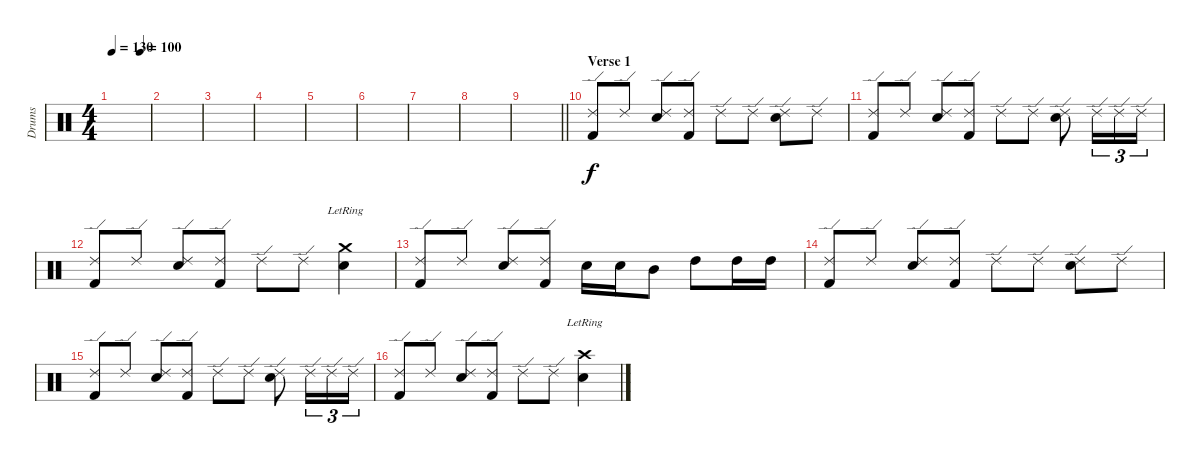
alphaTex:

\track ("Drums" "Drums") {instrument percussion}
\staff {score}
\articulation defaults
\ts (4 4)
\tempo 130
\tempo (100 0.75)
\clef neutral
\ks c
|
|
|
|
|
|
|
|
\barLineRight lightlight
|
\section ("" "Verse 1")
("Ride (edge) 2" "Kick (hit) 2").8 "Ride (edge) 2".8 ("Ride (edge) 2" "Snare (hit) 2").8 ("Ride (edge) 2" "Kick (hit) 2").8 "Ride (edge) 2".8 "Ride (edge) 2".8 ("Ride (edge) 2" "Snare (hit) 2").8 "Ride (edge) 2".8 |
("Ride (edge) 2" "Kick (hit) 2").8 "Ride (edge) 2".8 ("Ride (edge) 2" "Snare (hit) 2").8 ("Ride (edge) 2" "Kick (hit) 2").8 "Ride (edge) 2".8 "Ride (edge) 2".8 ("Ride (edge) 2" "Snare (hit) 2").8 "Ride (edge) 2".16{tu (3 2)} "Ride (edge) 2".16{tu (3 2)} "Ride (edge) 2".16{tu (3 2)} |
("Ride (edge) 2" "Kick (hit) 2").8 "Ride (edge) 2".8 ("Ride (edge) 2" "Snare (hit) 2").8 ("Ride (edge) 2" "Kick (hit) 2").8 "Ride (edge) 2".8 "Ride (edge) 2".8 ("Crash medium (hit)"{lr} "Snare (hit) 2").4 |
("Ride (edge) 2" "Kick (hit) 2").8 "Ride (edge) 2".8 ("Ride (edge) 2" "Snare (hit) 2").8 ("Ride (edge) 2" "Kick (hit) 2").8 "Snare (hit) 2".16 "Snare (hit) 2".16 "Mid Tom (hit)".8 "High Tom (hit)".8 "High Tom (hit)".16 "High Tom (hit)".16 |
("Ride (edge) 2" "Kick (hit) 2").8 "Ride (edge) 2".8 ("Ride (edge) 2" "Snare (hit) 2").8 ("Ride (edge) 2" "Kick (hit) 2").8 "Ride (edge) 2".8 "Ride (edge) 2".8 ("Ride (edge) 2" "Snare (hit) 2").8 "Ride (edge) 2".8 |
("Ride (edge) 2" "Kick (hit) 2").8 "Ride (edge) 2".8 ("Ride (edge) 2" "Snare (hit) 2").8 ("Ride (edge) 2" "Kick (hit) 2").8 "Ride (edge) 2".8 "Ride (edge) 2".8 ("Ride (edge) 2" "Snare (hit) 2").8 "Ride (edge) 2".16{tu (3 2)} "Ride (edge) 2".16{tu (3 2)} "Ride (edge) 2".16{tu (3 2)} |
("Ride (edge) 2" "Kick (hit) 2").8 "Ride (edge) 2".8 ("Ride (edge) 2" "Snare (hit) 2").8 ("Ride (edge) 2" "Kick (hit) 2").8 "Ride (edge) 2".8 "Ride (edge) 2".8 ("Crash high (hit)"{lr} "Snare (hit) 2").4
